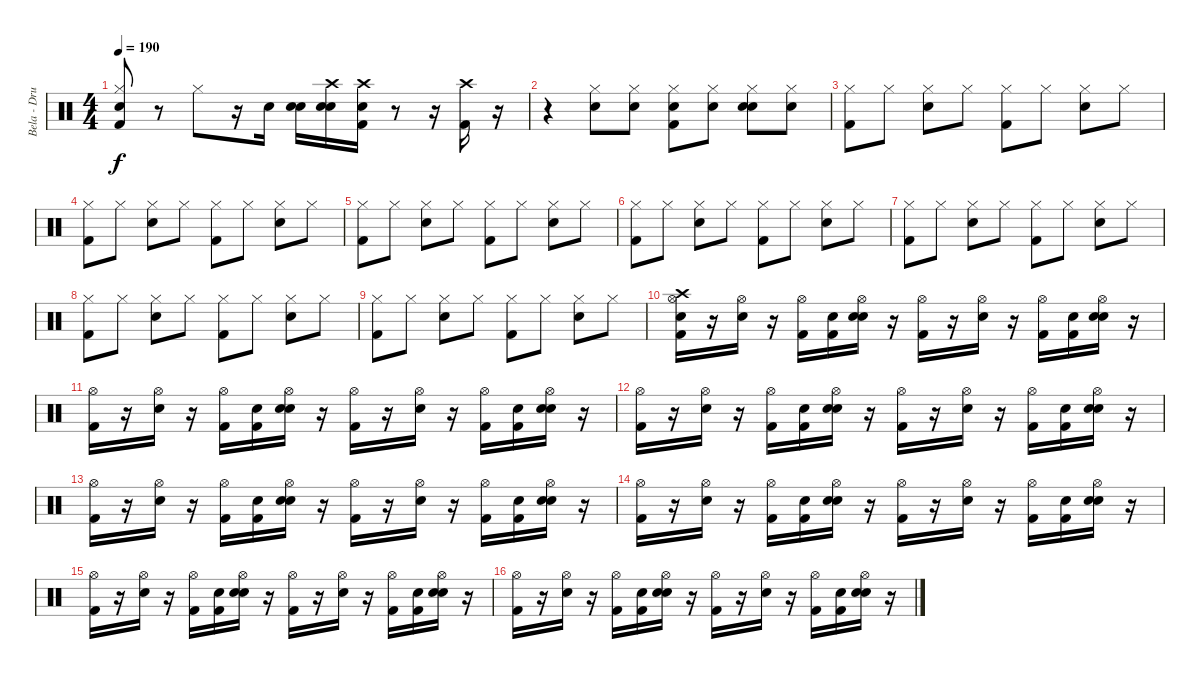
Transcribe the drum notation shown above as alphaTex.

\track ("Bela - Drums" "Bela - Dru") {instrument percussion}
\staff {score}
\articulation defaults
\ts (4 4)
\tempo 190
\clef neutral
\ks c
("Snare (hit)" "Hi-Hat (closed)" "Kick (hit) 2").8{dy f} r.8 "Hi-Hat (closed)".8 r.16 "Electric Snare (hit)".16 ("Snare (hit)" "Electric Snare (hit)").16 ("Snare (hit)" "Crash high (hit)" "Electric Snare (hit)").16 ("Snare (hit)" "Crash high (hit)" "Kick (hit) 2").16 r.8 r.16 ("Kick (hit) 2" "Crash high (hit)").16 r.16 |
r.4 ("Hi-Hat (closed)" "Electric Snare (hit)").8 ("Snare (hit)" "Hi-Hat (closed)").8 ("Snare (hit)" "Hi-Hat (closed)" "Kick (hit) 2").8 ("Snare (hit)" "Hi-Hat (closed)").8 ("Snare (hit)" "Hi-Hat (closed)" "Electric Snare (hit)").8 ("Snare (hit)" "Hi-Hat (closed)").8 |
("Hi-Hat (closed)" "Kick (hit) 2").8 "Hi-Hat (closed)".8 ("Hi-Hat (closed)" "Electric Snare (hit)").8 "Hi-Hat (closed)".8 ("Hi-Hat (closed)" "Kick (hit) 2").8 "Hi-Hat (closed)".8 ("Hi-Hat (closed)" "Electric Snare (hit)").8 "Hi-Hat (closed)".8 |
("Hi-Hat (closed)" "Kick (hit) 2").8 "Hi-Hat (closed)".8 ("Hi-Hat (closed)" "Electric Snare (hit)").8 "Hi-Hat (closed)".8 ("Hi-Hat (closed)" "Kick (hit) 2").8 "Hi-Hat (closed)".8 ("Hi-Hat (closed)" "Electric Snare (hit)").8 "Hi-Hat (closed)".8 |
("Hi-Hat (closed)" "Kick (hit) 2").8 "Hi-Hat (closed)".8 ("Hi-Hat (closed)" "Electric Snare (hit)").8 "Hi-Hat (closed)".8 ("Hi-Hat (closed)" "Kick (hit) 2").8 "Hi-Hat (closed)".8 ("Hi-Hat (closed)" "Electric Snare (hit)").8 "Hi-Hat (closed)".8 |
("Hi-Hat (closed)" "Kick (hit) 2").8 "Hi-Hat (closed)".8 ("Hi-Hat (closed)" "Electric Snare (hit)").8 "Hi-Hat (closed)".8 ("Hi-Hat (closed)" "Kick (hit) 2").8 "Hi-Hat (closed)".8 ("Hi-Hat (closed)" "Electric Snare (hit)").8 "Hi-Hat (closed)".8 |
("Hi-Hat (closed)" "Kick (hit) 2").8 "Hi-Hat (closed)".8 ("Hi-Hat (closed)" "Electric Snare (hit)").8 "Hi-Hat (closed)".8 ("Hi-Hat (closed)" "Kick (hit) 2").8 "Hi-Hat (closed)".8 ("Hi-Hat (closed)" "Electric Snare (hit)").8 "Hi-Hat (closed)".8 |
("Hi-Hat (closed)" "Kick (hit) 2").8 "Hi-Hat (closed)".8 ("Hi-Hat (closed)" "Electric Snare (hit)").8 "Hi-Hat (closed)".8 ("Hi-Hat (closed)" "Kick (hit) 2").8 "Hi-Hat (closed)".8 ("Hi-Hat (closed)" "Electric Snare (hit)").8 "Hi-Hat (closed)".8 |
("Hi-Hat (closed)" "Kick (hit) 2").8 "Hi-Hat (closed)".8 ("Hi-Hat (closed)" "Electric Snare (hit)").8 "Hi-Hat (closed)".8 ("Hi-Hat (closed)" "Kick (hit) 2").8 "Hi-Hat (closed)".8 ("Hi-Hat (closed)" "Electric Snare (hit)").8 "Hi-Hat (closed)".8 |
("Snare (hit)" "Crash high (hit)" "Hi-Hat (open)" "Kick (hit) 2").16 r.16 ("Hi-Hat (open)" "Electric Snare (hit)").16 r.16 ("Hi-Hat (open)" "Kick (hit) 2").16 ("Snare (hit)" "Kick (hit) 2").16 ("Snare (hit)" "Hi-Hat (open)" "Electric Snare (hit)").16 r.16 ("Kick (hit) 2" "Hi-Hat (open)").16 r.16 ("Hi-Hat (open)" "Electric Snare (hit)").16 r.16 ("Hi-Hat (open)" "Kick (hit) 2").16 ("Snare (hit)" "Kick (hit) 2").16 ("Snare (hit)" "Hi-Hat (open)" "Electric Snare (hit)").16 r.16 |
("Hi-Hat (open)" "Kick (hit) 2").16 r.16 ("Hi-Hat (open)" "Electric Snare (hit)").16 r.16 ("Hi-Hat (open)" "Kick (hit) 2").16 ("Snare (hit)" "Kick (hit) 2").16 ("Snare (hit)" "Hi-Hat (open)" "Electric Snare (hit)").16 r.16 ("Kick (hit) 2" "Hi-Hat (open)").16 r.16 ("Hi-Hat (open)" "Electric Snare (hit)").16 r.16 ("Hi-Hat (open)" "Kick (hit) 2").16 ("Snare (hit)" "Kick (hit) 2").16 ("Snare (hit)" "Hi-Hat (open)" "Electric Snare (hit)").16 r.16 |
("Hi-Hat (open)" "Kick (hit) 2").16 r.16 ("Hi-Hat (open)" "Electric Snare (hit)").16 r.16 ("Hi-Hat (open)" "Kick (hit) 2").16 ("Snare (hit)" "Kick (hit) 2").16 ("Snare (hit)" "Hi-Hat (open)" "Electric Snare (hit)").16 r.16 ("Kick (hit) 2" "Hi-Hat (open)").16 r.16 ("Hi-Hat (open)" "Electric Snare (hit)").16 r.16 ("Hi-Hat (open)" "Kick (hit) 2").16 ("Snare (hit)" "Kick (hit) 2").16 ("Snare (hit)" "Hi-Hat (open)" "Electric Snare (hit)").16 r.16 |
("Hi-Hat (open)" "Kick (hit) 2").16 r.16 ("Hi-Hat (open)" "Electric Snare (hit)").16 r.16 ("Hi-Hat (open)" "Kick (hit) 2").16 ("Snare (hit)" "Kick (hit) 2").16 ("Snare (hit)" "Hi-Hat (open)" "Electric Snare (hit)").16 r.16 ("Kick (hit) 2" "Hi-Hat (open)").16 r.16 ("Hi-Hat (open)" "Electric Snare (hit)").16 r.16 ("Hi-Hat (open)" "Kick (hit) 2").16 ("Snare (hit)" "Kick (hit) 2").16 ("Snare (hit)" "Hi-Hat (open)" "Electric Snare (hit)").16 r.16 |
("Hi-Hat (open)" "Kick (hit) 2").16 r.16 ("Hi-Hat (open)" "Electric Snare (hit)").16 r.16 ("Hi-Hat (open)" "Kick (hit) 2").16 ("Snare (hit)" "Kick (hit) 2").16 ("Snare (hit)" "Hi-Hat (open)" "Electric Snare (hit)").16 r.16 ("Kick (hit) 2" "Hi-Hat (open)").16 r.16 ("Hi-Hat (open)" "Electric Snare (hit)").16 r.16 ("Hi-Hat (open)" "Kick (hit) 2").16 ("Snare (hit)" "Kick (hit) 2").16 ("Snare (hit)" "Hi-Hat (open)" "Electric Snare (hit)").16 r.16 |
("Hi-Hat (open)" "Kick (hit) 2").16 r.16 ("Hi-Hat (open)" "Electric Snare (hit)").16 r.16 ("Hi-Hat (open)" "Kick (hit) 2").16 ("Snare (hit)" "Kick (hit) 2").16 ("Snare (hit)" "Hi-Hat (open)" "Electric Snare (hit)").16 r.16 ("Kick (hit) 2" "Hi-Hat (open)").16 r.16 ("Hi-Hat (open)" "Electric Snare (hit)").16 r.16 ("Hi-Hat (open)" "Kick (hit) 2").16 ("Snare (hit)" "Kick (hit) 2").16 ("Snare (hit)" "Hi-Hat (open)" "Electric Snare (hit)").16 r.16 |
("Hi-Hat (open)" "Kick (hit) 2").16 r.16 ("Hi-Hat (open)" "Electric Snare (hit)").16 r.16 ("Hi-Hat (open)" "Kick (hit) 2").16 ("Snare (hit)" "Kick (hit) 2").16 ("Snare (hit)" "Hi-Hat (open)" "Electric Snare (hit)").16 r.16 ("Kick (hit) 2" "Hi-Hat (open)").16 r.16 ("Hi-Hat (open)" "Electric Snare (hit)").16 r.16 ("Hi-Hat (open)" "Kick (hit) 2").16 ("Snare (hit)" "Kick (hit) 2").16 ("Snare (hit)" "Hi-Hat (open)" "Electric Snare (hit)").16 r.16
